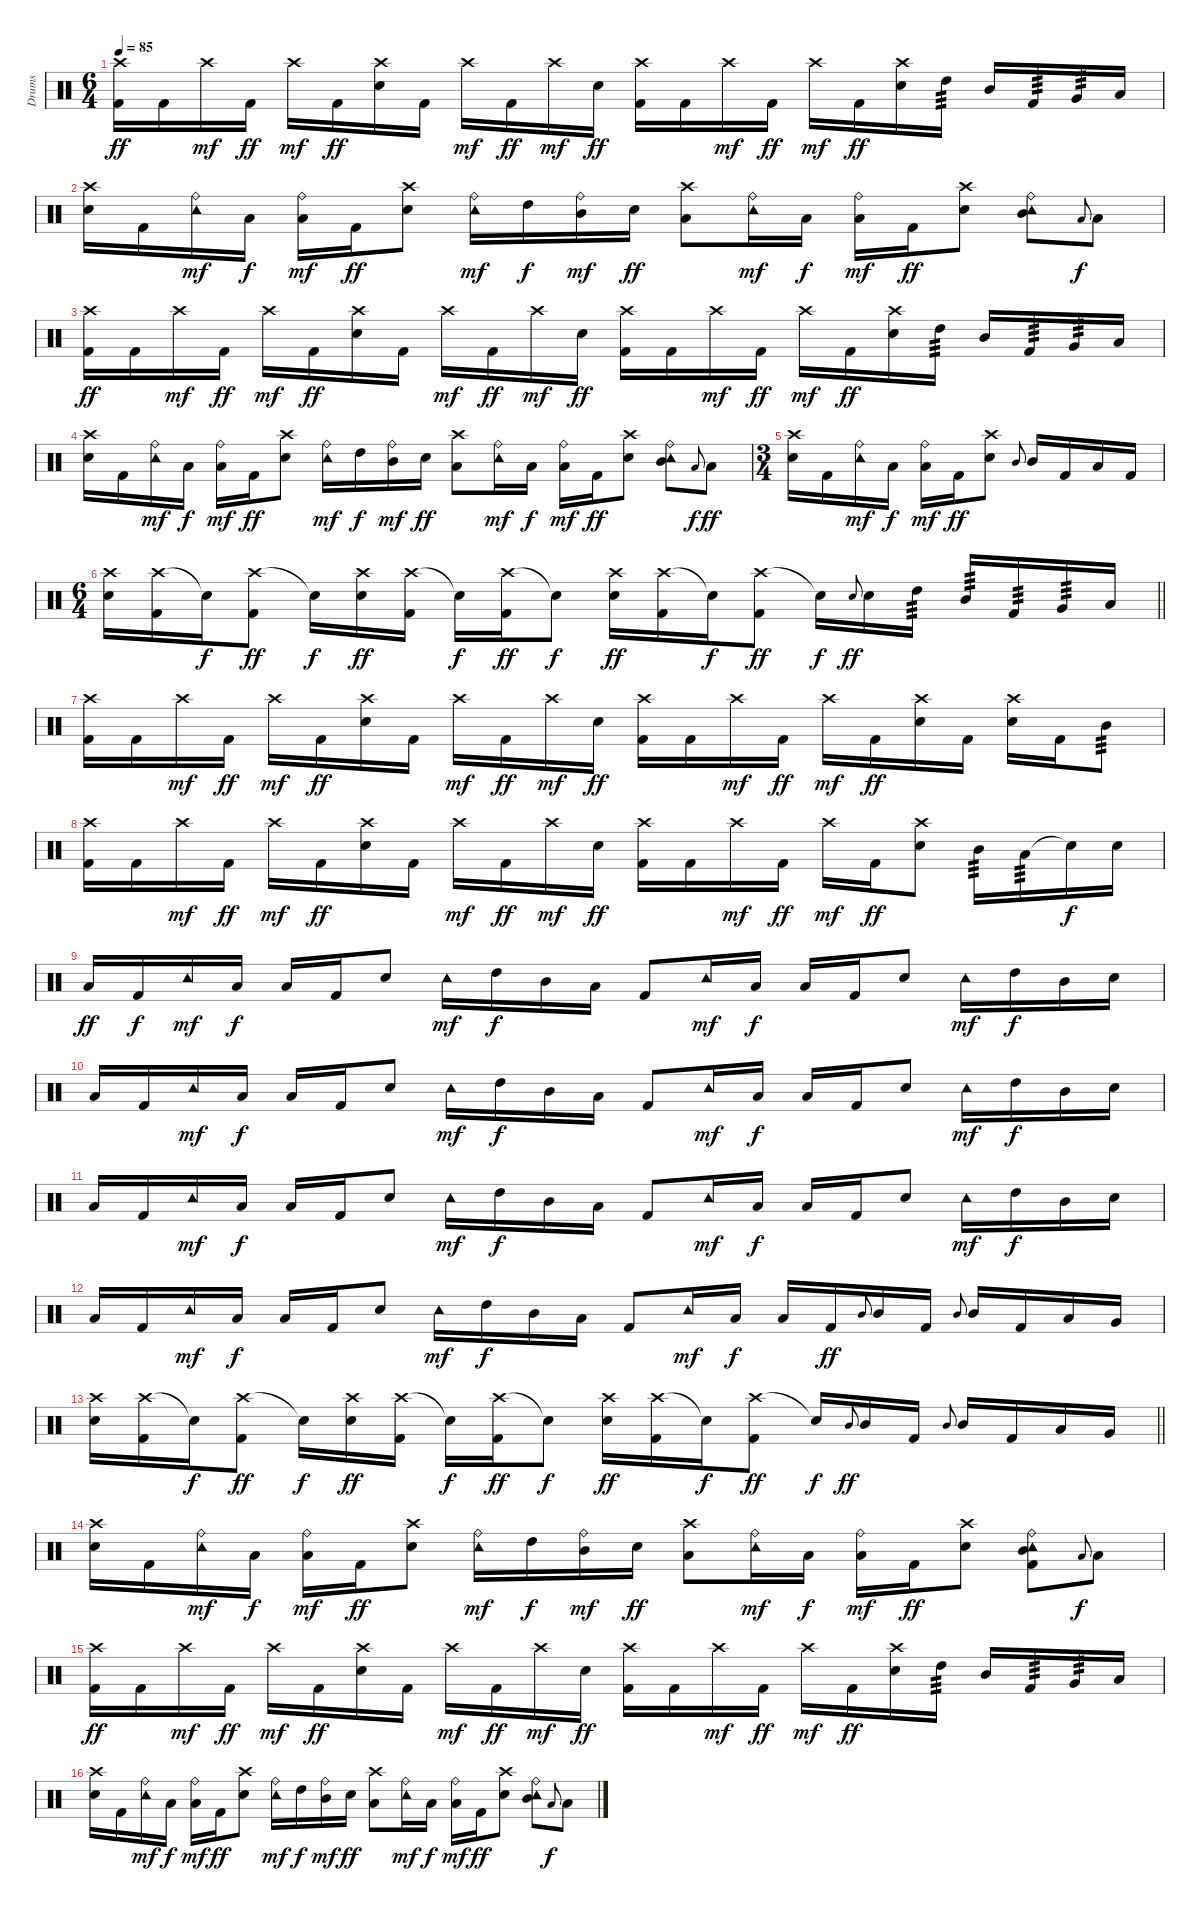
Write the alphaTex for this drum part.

\track ("Drums" "Drums") {instrument percussion}
\staff {score}
\articulation defaults
\ts (6 4)
\tempo 85
\clef neutral
\ks c
("Crash high (hit)" "Kick (hit) 2").16{dy ff} "Kick (hit) 2".16 "Crash high (hit)".16{dy mf} "Kick (hit) 2".16{dy ff} "Crash high (hit)".16{dy mf} "Kick (hit) 2".16{dy ff} ("Crash high (hit)" "Snare (hit) 2").16 "Kick (hit) 2".16 "Crash high (hit)".16{dy mf} "Kick (hit) 2".16{dy ff} "Crash high (hit)".16{dy mf} "Snare (hit) 2".16{dy ff} ("Crash high (hit)" "Kick (hit) 2").16 "Kick (hit) 2".16 "Crash high (hit)".16{dy mf} "Kick (hit) 2".16{dy ff} "Crash high (hit)".16{dy mf} "Kick (hit) 2".16{dy ff} ("Crash high (hit)" "Snare (hit) 2").16 "High Tom (hit)".16{tp 3} "Mid Tom (hit)".16 "Kick (hit) 2".16{tp 3} "Very Low Tom (hit)".16{tp 3} "Low Floor Tom (hit)".16 |
("Crash high (hit)" "Snare (hit) 2").16 "Kick (hit) 2".16 ("Tambourine (hit)" "Ride (bell)").16{dy mf} "Low Floor Tom (hit)".16{dy f} ("Ride (bell)" "Low Floor Tom (hit)").16{dy mf} "Kick (hit) 2".16{dy ff} ("Crash high (hit)" "Snare (hit) 2").8 ("Tambourine (hit)" "Ride (bell)").16{dy mf} "High Tom (hit)".16{dy f} ("Ride (bell)" "Mid Tom (hit)").16{dy mf} "Snare (hit) 2".16{dy ff} ("Crash high (hit)" "Low Tom (hit)").8 ("Tambourine (hit)" "Ride (bell)").16{dy mf} "Low Floor Tom (hit)".16{dy f} ("Ride (bell)" "Low Floor Tom (hit)").16{dy mf} "Kick (hit) 2".16{dy ff} ("Crash high (hit)" "Snare (hit) 2").8 ("Tambourine (hit)" "Ride (bell)" "Mid Tom (hit)").8 "Low Tom (hit)".8{gr onbeat dy f} "Low Tom (hit)".8 |
("Crash high (hit)" "Kick (hit) 2").16{dy ff} "Kick (hit) 2".16 "Crash high (hit)".16{dy mf} "Kick (hit) 2".16{dy ff} "Crash high (hit)".16{dy mf} "Kick (hit) 2".16{dy ff} ("Crash high (hit)" "Snare (hit) 2").16 "Kick (hit) 2".16 "Crash high (hit)".16{dy mf} "Kick (hit) 2".16{dy ff} "Crash high (hit)".16{dy mf} "Snare (hit) 2".16{dy ff} ("Crash high (hit)" "Kick (hit) 2").16 "Kick (hit) 2".16 "Crash high (hit)".16{dy mf} "Kick (hit) 2".16{dy ff} "Crash high (hit)".16{dy mf} "Kick (hit) 2".16{dy ff} ("Crash high (hit)" "Snare (hit) 2").16 "High Tom (hit)".16{tp 3} "Mid Tom (hit)".16 "Kick (hit) 2".16{tp 3} "Very Low Tom (hit)".16{tp 3} "Low Floor Tom (hit)".16 |
("Crash high (hit)" "Snare (hit) 2").16 "Kick (hit) 2".16 ("Tambourine (hit)" "Ride (bell)").16{dy mf} "Low Floor Tom (hit)".16{dy f} ("Ride (bell)" "Low Floor Tom (hit)").16{dy mf} "Kick (hit) 2".16{dy ff} ("Crash high (hit)" "Snare (hit) 2").8 ("Tambourine (hit)" "Ride (bell)").16{dy mf} "High Tom (hit)".16{dy f} ("Ride (bell)" "Mid Tom (hit)").16{dy mf} "Snare (hit) 2".16{dy ff} ("Crash high (hit)" "Low Tom (hit)").8 ("Tambourine (hit)" "Ride (bell)").16{dy mf} "Low Floor Tom (hit)".16{dy f} ("Ride (bell)" "Low Floor Tom (hit)").16{dy mf} "Kick (hit) 2".16{dy ff} ("Crash high (hit)" "Snare (hit) 2").8 ("Tambourine (hit)" "Ride (bell)" "Mid Tom (hit)").8 "Low Tom (hit)".8{gr onbeat dy f} "Low Tom (hit)".8{dy ff} |
\ts (3 4)
("Crash high (hit)" "Snare (hit) 2").16 "Kick (hit) 2".16 ("Tambourine (hit)" "Ride (bell)").16{dy mf} "Low Floor Tom (hit)".16{dy f} ("Ride (bell)" "Low Floor Tom (hit)").16{dy mf} "Kick (hit) 2".16{dy ff} ("Crash high (hit)" "Snare (hit) 2").8 "Mid Tom (hit)".8{gr onbeat} "Mid Tom (hit)".16 "Kick (hit) 2".16 "Low Tom (hit)".16 "Kick (hit) 2".16 |
\ts (6 4)
\barLineRight lightlight
("Crash high (hit)" "Snare (hit) 2").16 ("Crash high (hit)" "Kick (hit) 2").16 "Snare (hit)"{t}.16{dy f} ("Crash high (hit)" "Kick (hit) 2").8{dy ff} "Snare (hit)"{t}.16{dy f} ("Crash high (hit)" "Snare (hit) 2").16{dy ff} ("Crash high (hit)" "Kick (hit) 2").16 "Snare (hit)"{t}.16{dy f} ("Crash high (hit)" "Kick (hit) 2").16{dy ff} "Snare (hit)"{t}.8{dy f} ("Crash high (hit)" "Snare (hit) 2").16{dy ff} ("Crash high (hit)" "Kick (hit) 2").16 "Snare (hit)"{t}.16{dy f} ("Crash high (hit)" "Kick (hit) 2").8{dy ff} "Snare (hit)"{t}.16{dy f} "Snare (hit) 2".8{gr onbeat dy ff} "Snare (hit) 2".16 "High Tom (hit)".16{tp 3} "Mid Tom (hit)".16{tp 3} "Kick (hit) 2".16{tp 3} "Very Low Tom (hit)".16{tp 3} "Low Floor Tom (hit)".16 |
\section ("" "")
("Crash high (hit)" "Kick (hit) 2").16 "Kick (hit) 2".16 "Crash high (hit)".16{dy mf} "Kick (hit) 2".16{dy ff} "Crash high (hit)".16{dy mf} "Kick (hit) 2".16{dy ff} ("Crash high (hit)" "Snare (hit) 2").16 "Kick (hit) 2".16 "Crash high (hit)".16{dy mf} "Kick (hit) 2".16{dy ff} "Crash high (hit)".16{dy mf} "Snare (hit) 2".16{dy ff} ("Crash high (hit)" "Kick (hit) 2").16 "Kick (hit) 2".16 "Crash high (hit)".16{dy mf} "Kick (hit) 2".16{dy ff} "Crash high (hit)".16{dy mf} "Kick (hit) 2".16{dy ff} ("Crash high (hit)" "Snare (hit) 2").16 "Kick (hit) 2".16 ("Crash high (hit)" "Snare (hit) 2").16 "Kick (hit) 2".16 "Mid Tom (hit)".8{tp 3} |
("Crash high (hit)" "Kick (hit) 2").16 "Kick (hit) 2".16 "Crash high (hit)".16{dy mf} "Kick (hit) 2".16{dy ff} "Crash high (hit)".16{dy mf} "Kick (hit) 2".16{dy ff} ("Crash high (hit)" "Snare (hit) 2").16 "Kick (hit) 2".16 "Crash high (hit)".16{dy mf} "Kick (hit) 2".16{dy ff} "Crash high (hit)".16{dy mf} "Snare (hit) 2".16{dy ff} ("Crash high (hit)" "Kick (hit) 2").16 "Kick (hit) 2".16 "Crash high (hit)".16{dy mf} "Kick (hit) 2".16{dy ff} "Crash high (hit)".16{dy mf} "Kick (hit) 2".16{dy ff} ("Crash high (hit)" "Snare (hit) 2").8 "Mid Tom (hit)".16{tp 3} "Low Tom (hit)".16{tp 3} "Snare (hit)"{t}.16{dy f} "Snare (hit) 2".16 |
"Low Tom (hit)".16{dy ff} "Kick (hit) 2".16{dy f} "Tambourine (hit)".16{dy mf} "Low Floor Tom (hit)".16{dy f} "Low Floor Tom (hit)".16 "Kick (hit) 2".16 "Snare (hit) 2".8 "Tambourine (hit)".16{dy mf} "High Tom (hit)".16{dy f} "Mid Tom (hit)".16 "Low Tom (hit)".16 "Kick (hit) 2".8 "Tambourine (hit)".16{dy mf} "Low Floor Tom (hit)".16{dy f} "Low Floor Tom (hit)".16 "Kick (hit) 2".16 "Snare (hit) 2".8 "Tambourine (hit)".16{dy mf} "High Tom (hit)".16{dy f} "Mid Tom (hit)".16 "Snare (hit) 2".16 |
"Low Tom (hit)".16 "Kick (hit) 2".16 "Tambourine (hit)".16{dy mf} "Low Floor Tom (hit)".16{dy f} "Low Floor Tom (hit)".16 "Kick (hit) 2".16 "Snare (hit) 2".8 "Tambourine (hit)".16{dy mf} "High Tom (hit)".16{dy f} "Mid Tom (hit)".16 "Low Tom (hit)".16 "Kick (hit) 2".8 "Tambourine (hit)".16{dy mf} "Low Floor Tom (hit)".16{dy f} "Low Floor Tom (hit)".16 "Kick (hit) 2".16 "Snare (hit) 2".8 "Tambourine (hit)".16{dy mf} "High Tom (hit)".16{dy f} "Mid Tom (hit)".16 "Snare (hit) 2".16 |
"Low Tom (hit)".16 "Kick (hit) 2".16 "Tambourine (hit)".16{dy mf} "Low Floor Tom (hit)".16{dy f} "Low Floor Tom (hit)".16 "Kick (hit) 2".16 "Snare (hit) 2".8 "Tambourine (hit)".16{dy mf} "High Tom (hit)".16{dy f} "Mid Tom (hit)".16 "Low Tom (hit)".16 "Kick (hit) 2".8 "Tambourine (hit)".16{dy mf} "Low Floor Tom (hit)".16{dy f} "Low Floor Tom (hit)".16 "Kick (hit) 2".16 "Snare (hit) 2".8 "Tambourine (hit)".16{dy mf} "High Tom (hit)".16{dy f} "Mid Tom (hit)".16 "Snare (hit) 2".16 |
"Low Tom (hit)".16 "Kick (hit) 2".16 "Tambourine (hit)".16{dy mf} "Low Floor Tom (hit)".16{dy f} "Low Floor Tom (hit)".16 "Kick (hit) 2".16 "Snare (hit) 2".8 "Tambourine (hit)".16{dy mf} "High Tom (hit)".16{dy f} "Mid Tom (hit)".16 "Low Tom (hit)".16 "Kick (hit) 2".8 "Tambourine (hit)".16{dy mf} "Low Floor Tom (hit)".16{dy f} "Low Floor Tom (hit)".16 "Kick (hit) 2".16{dy ff} "Mid Tom (hit)".8{gr onbeat} "Mid Tom (hit)".16 "Kick (hit) 2".16 "Mid Tom (hit)".8{gr onbeat} "Mid Tom (hit)".16 "Kick (hit) 2".16 "Low Tom (hit)".16 "Very Low Tom (hit)".16 |
\barLineRight lightlight
("Crash high (hit)" "Snare (hit) 2").16 ("Crash high (hit)" "Kick (hit) 2").16 "Snare (hit)"{t}.16{dy f} ("Crash high (hit)" "Kick (hit) 2").8{dy ff} "Snare (hit)"{t}.16{dy f} ("Crash high (hit)" "Snare (hit) 2").16{dy ff} ("Crash high (hit)" "Kick (hit) 2").16 "Snare (hit)"{t}.16{dy f} ("Crash high (hit)" "Kick (hit) 2").16{dy ff} "Snare (hit)"{t}.8{dy f} ("Crash high (hit)" "Snare (hit) 2").16{dy ff} ("Crash high (hit)" "Kick (hit) 2").16 "Snare (hit)"{t}.16{dy f} ("Crash high (hit)" "Kick (hit) 2").8{dy ff} "Snare (hit)"{t}.16{dy f} "Mid Tom (hit)".8{gr onbeat dy ff} "Mid Tom (hit)".16 "Kick (hit) 2".16 "Mid Tom (hit)".8{gr onbeat} "Mid Tom (hit)".16 "Kick (hit) 2".16 "Low Tom (hit)".16 "Very Low Tom (hit)".16 |
\section ("" "")
("Crash high (hit)" "Snare (hit) 2").16 "Kick (hit) 2".16 ("Tambourine (hit)" "Ride (bell)").16{dy mf} "Low Floor Tom (hit)".16{dy f} ("Ride (bell)" "Low Floor Tom (hit)").16{dy mf} "Kick (hit) 2".16{dy ff} ("Crash high (hit)" "Snare (hit) 2").8 ("Tambourine (hit)" "Ride (bell)").16{dy mf} "High Tom (hit)".16{dy f} ("Ride (bell)" "Mid Tom (hit)").16{dy mf} "Snare (hit) 2".16{dy ff} ("Crash high (hit)" "Low Tom (hit)").8 ("Tambourine (hit)" "Ride (bell)").16{dy mf} "Low Floor Tom (hit)".16{dy f} ("Ride (bell)" "Low Floor Tom (hit)").16{dy mf} "Kick (hit) 2".16{dy ff} ("Crash high (hit)" "Snare (hit) 2").8 ("Tambourine (hit)" "Ride (bell)" "Mid Tom (hit)" "Kick (hit) 2").8 "Low Tom (hit)".8{gr onbeat dy f} "Low Tom (hit)".8 |
("Crash high (hit)" "Kick (hit) 2").16{dy ff} "Kick (hit) 2".16 "Crash high (hit)".16{dy mf} "Kick (hit) 2".16{dy ff} "Crash high (hit)".16{dy mf} "Kick (hit) 2".16{dy ff} ("Crash high (hit)" "Snare (hit) 2").16 "Kick (hit) 2".16 "Crash high (hit)".16{dy mf} "Kick (hit) 2".16{dy ff} "Crash high (hit)".16{dy mf} "Snare (hit) 2".16{dy ff} ("Crash high (hit)" "Kick (hit) 2").16 "Kick (hit) 2".16 "Crash high (hit)".16{dy mf} "Kick (hit) 2".16{dy ff} "Crash high (hit)".16{dy mf} "Kick (hit) 2".16{dy ff} ("Crash high (hit)" "Snare (hit) 2").16 "High Tom (hit)".16{tp 3} "Mid Tom (hit)".16 "Kick (hit) 2".16{tp 3} "Very Low Tom (hit)".16{tp 3} "Low Floor Tom (hit)".16 |
("Crash high (hit)" "Snare (hit) 2").16 "Kick (hit) 2".16 ("Tambourine (hit)" "Ride (bell)").16{dy mf} "Low Floor Tom (hit)".16{dy f} ("Ride (bell)" "Low Floor Tom (hit)").16{dy mf} "Kick (hit) 2".16{dy ff} ("Crash high (hit)" "Snare (hit) 2").8 ("Tambourine (hit)" "Ride (bell)").16{dy mf} "High Tom (hit)".16{dy f} ("Ride (bell)" "Mid Tom (hit)").16{dy mf} "Snare (hit) 2".16{dy ff} ("Crash high (hit)" "Low Tom (hit)").8 ("Tambourine (hit)" "Ride (bell)").16{dy mf} "Low Floor Tom (hit)".16{dy f} ("Ride (bell)" "Low Floor Tom (hit)").16{dy mf} "Kick (hit) 2".16{dy ff} ("Crash high (hit)" "Snare (hit) 2").8 ("Tambourine (hit)" "Ride (bell)" "Mid Tom (hit)").8 "Low Tom (hit)".8{gr onbeat dy f} "Low Tom (hit)".8
